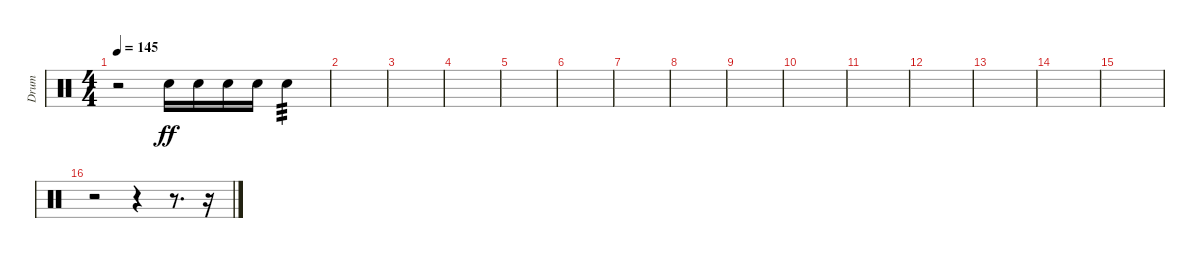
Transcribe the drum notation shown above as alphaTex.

\track ("Drum" "Drum") {instrument percussion bank 4}
\staff {score}
\articulation defaults
\ts (4 4)
\tempo 145
\clef neutral
\ks c
r.2{dy ff} "Electric Snare (hit)".16 "Electric Snare (hit)".16 "Electric Snare (hit)".16 "Electric Snare (hit)".16 "Electric Snare (hit)".4{tp 3} |
|
|
|
|
|
|
|
|
|
|
|
|
|
|
r.2 r.4 r.8{d} r.16{volume 7}
